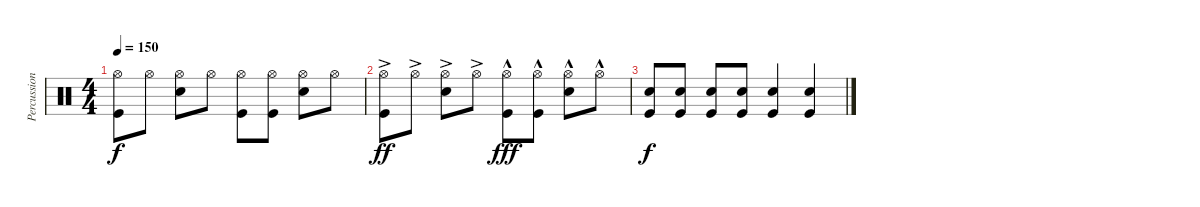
\track ("Percussion" "Percussion") {instrument percussion}
\staff {score}
\articulation defaults
\ts (4 4)
\tempo 150
\clef neutral
\ks c
("Hi-Hat (open)" "Kick (hit)").8{dy f} "Hi-Hat (open)".8 ("Hi-Hat (open)" "Snare (hit) 2").8 "Hi-Hat (open)".8 ("Hi-Hat (open)" "Kick (hit)").8 ("Hi-Hat (open)" "Kick (hit)").8 ("Hi-Hat (open)" "Snare (hit) 2").8 "Hi-Hat (open)".8 |
("Hi-Hat (open)"{ac} "Kick (hit)").8{dy ff} "Hi-Hat (open)"{ac}.8 ("Hi-Hat (open)"{ac} "Snare (hit) 2").8 "Hi-Hat (open)"{ac}.8 ("Hi-Hat (open)"{hac} "Kick (hit)").8{dy fff} ("Hi-Hat (open)"{hac} "Kick (hit)").8 ("Hi-Hat (open)"{hac} "Snare (hit) 2").8 "Hi-Hat (open)"{hac}.8 |
("Snare (hit) 2" "Kick (hit)").8{dy f} ("Snare (hit) 2" "Kick (hit)").8 ("Snare (hit) 2" "Kick (hit)").8 ("Snare (hit) 2" "Kick (hit)").8 ("Snare (hit) 2" "Kick (hit)").4 ("Snare (hit) 2" "Kick (hit)").4
